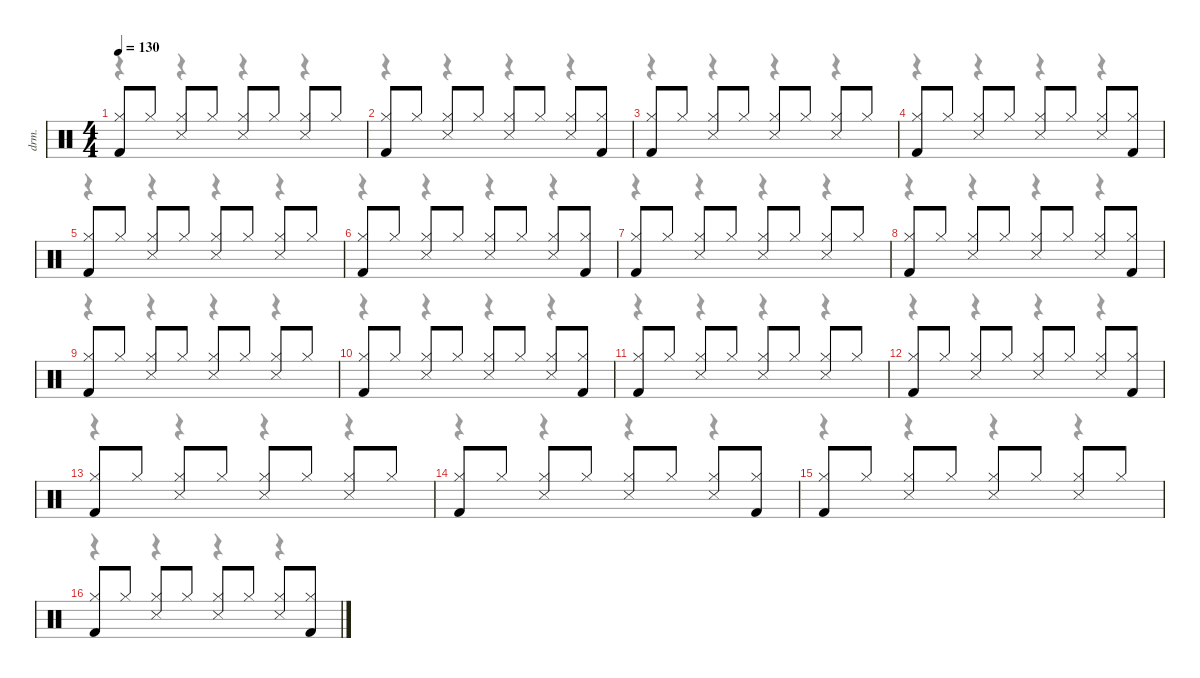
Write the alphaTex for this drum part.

\defaultSystemsLayout 4
\hideDynamics
\bracketExtendMode nobrackets
\track ("Drums" "drm.") {instrument percussion}
\staff {score}
\articulation defaults
\voice
\ts (4 4)
\tempo 130
\clef neutral
\ks c
("Kick (hit) 2" "Hi-Hat (closed)").8{dy fff beam Up} "Hi-Hat (closed)".8{beam Up} ("Snare (side stick) 3" "Hi-Hat (closed)").8{beam Up} "Hi-Hat (closed)".8{beam Up} ("Snare (side stick) 3" "Hi-Hat (closed)").8{beam Up} "Hi-Hat (closed)".8{beam Up} ("Snare (side stick) 3" "Hi-Hat (closed)").8{beam Up} "Hi-Hat (closed)".8{beam Up} |
("Kick (hit) 2" "Hi-Hat (closed)").8{beam Up} "Hi-Hat (closed)".8{beam Up} ("Snare (side stick) 3" "Hi-Hat (closed)").8{beam Up} "Hi-Hat (closed)".8{beam Up} ("Snare (side stick) 3" "Hi-Hat (closed)").8{beam Up} "Hi-Hat (closed)".8{beam Up} ("Snare (side stick) 3" "Hi-Hat (closed)").8{beam Up} ("Kick (hit) 2" "Hi-Hat (closed)").8{beam Up} |
("Kick (hit) 2" "Hi-Hat (closed)").8{beam Up} "Hi-Hat (closed)".8{beam Up} ("Snare (side stick) 3" "Hi-Hat (closed)").8{beam Up} "Hi-Hat (closed)".8{beam Up} ("Snare (side stick) 3" "Hi-Hat (closed)").8{beam Up} "Hi-Hat (closed)".8{beam Up} ("Snare (side stick) 3" "Hi-Hat (closed)").8{beam Up} "Hi-Hat (closed)".8{beam Up} |
("Kick (hit) 2" "Hi-Hat (closed)").8{beam Up} "Hi-Hat (closed)".8{beam Up} ("Snare (side stick) 3" "Hi-Hat (closed)").8{beam Up} "Hi-Hat (closed)".8{beam Up} ("Snare (side stick) 3" "Hi-Hat (closed)").8{beam Up} "Hi-Hat (closed)".8{beam Up} ("Snare (side stick) 3" "Hi-Hat (closed)").8{beam Up} ("Kick (hit) 2" "Hi-Hat (closed)").8{beam Up} |
("Kick (hit) 2" "Hi-Hat (closed)").8{beam Up} "Hi-Hat (closed)".8{beam Up} ("Snare (side stick) 3" "Hi-Hat (closed)").8{beam Up} "Hi-Hat (closed)".8{beam Up} ("Snare (side stick) 3" "Hi-Hat (closed)").8{beam Up} "Hi-Hat (closed)".8{beam Up} ("Snare (side stick) 3" "Hi-Hat (closed)").8{beam Up} "Hi-Hat (closed)".8{beam Up} |
("Kick (hit) 2" "Hi-Hat (closed)").8{beam Up} "Hi-Hat (closed)".8{beam Up} ("Snare (side stick) 3" "Hi-Hat (closed)").8{beam Up} "Hi-Hat (closed)".8{beam Up} ("Snare (side stick) 3" "Hi-Hat (closed)").8{beam Up} "Hi-Hat (closed)".8{beam Up} ("Snare (side stick) 3" "Hi-Hat (closed)").8{beam Up} ("Kick (hit) 2" "Hi-Hat (closed)").8{beam Up} |
("Kick (hit) 2" "Hi-Hat (closed)").8{beam Up} "Hi-Hat (closed)".8{beam Up} ("Snare (side stick) 3" "Hi-Hat (closed)").8{beam Up} "Hi-Hat (closed)".8{beam Up} ("Snare (side stick) 3" "Hi-Hat (closed)").8{beam Up} "Hi-Hat (closed)".8{beam Up} ("Snare (side stick) 3" "Hi-Hat (closed)").8{beam Up} "Hi-Hat (closed)".8{beam Up} |
("Kick (hit) 2" "Hi-Hat (closed)").8{beam Up} "Hi-Hat (closed)".8{beam Up} ("Snare (side stick) 3" "Hi-Hat (closed)").8{beam Up} "Hi-Hat (closed)".8{beam Up} ("Snare (side stick) 3" "Hi-Hat (closed)").8{beam Up} "Hi-Hat (closed)".8{beam Up} ("Snare (side stick) 3" "Hi-Hat (closed)").8{beam Up} ("Kick (hit) 2" "Hi-Hat (closed)").8{beam Up} |
("Kick (hit) 2" "Hi-Hat (closed)").8{beam Up} "Hi-Hat (closed)".8{beam Up} ("Snare (side stick) 3" "Hi-Hat (closed)").8{beam Up} "Hi-Hat (closed)".8{beam Up} ("Snare (side stick) 3" "Hi-Hat (closed)").8{beam Up} "Hi-Hat (closed)".8{beam Up} ("Snare (side stick) 3" "Hi-Hat (closed)").8{beam Up} "Hi-Hat (closed)".8{beam Up} |
("Kick (hit) 2" "Hi-Hat (closed)").8{beam Up} "Hi-Hat (closed)".8{beam Up} ("Snare (side stick) 3" "Hi-Hat (closed)").8{beam Up} "Hi-Hat (closed)".8{beam Up} ("Snare (side stick) 3" "Hi-Hat (closed)").8{beam Up} "Hi-Hat (closed)".8{beam Up} ("Snare (side stick) 3" "Hi-Hat (closed)").8{beam Up} ("Kick (hit) 2" "Hi-Hat (closed)").8{beam Up} |
("Kick (hit) 2" "Hi-Hat (closed)").8{beam Up} "Hi-Hat (closed)".8{beam Up} ("Snare (side stick) 3" "Hi-Hat (closed)").8{beam Up} "Hi-Hat (closed)".8{beam Up} ("Snare (side stick) 3" "Hi-Hat (closed)").8{beam Up} "Hi-Hat (closed)".8{beam Up} ("Snare (side stick) 3" "Hi-Hat (closed)").8{beam Up} "Hi-Hat (closed)".8{beam Up} |
("Kick (hit) 2" "Hi-Hat (closed)").8{beam Up} "Hi-Hat (closed)".8{beam Up} ("Snare (side stick) 3" "Hi-Hat (closed)").8{beam Up} "Hi-Hat (closed)".8{beam Up} ("Snare (side stick) 3" "Hi-Hat (closed)").8{beam Up} "Hi-Hat (closed)".8{beam Up} ("Snare (side stick) 3" "Hi-Hat (closed)").8{beam Up} ("Kick (hit) 2" "Hi-Hat (closed)").8{beam Up} |
("Kick (hit) 2" "Hi-Hat (closed)").8{beam Up} "Hi-Hat (closed)".8{beam Up} ("Snare (side stick) 3" "Hi-Hat (closed)").8{beam Up} "Hi-Hat (closed)".8{beam Up} ("Snare (side stick) 3" "Hi-Hat (closed)").8{beam Up} "Hi-Hat (closed)".8{beam Up} ("Snare (side stick) 3" "Hi-Hat (closed)").8{beam Up} "Hi-Hat (closed)".8{beam Up} |
("Kick (hit) 2" "Hi-Hat (closed)").8{beam Up} "Hi-Hat (closed)".8{beam Up} ("Snare (side stick) 3" "Hi-Hat (closed)").8{beam Up} "Hi-Hat (closed)".8{beam Up} ("Snare (side stick) 3" "Hi-Hat (closed)").8{beam Up} "Hi-Hat (closed)".8{beam Up} ("Snare (side stick) 3" "Hi-Hat (closed)").8{beam Up} ("Kick (hit) 2" "Hi-Hat (closed)").8{beam Up} |
("Kick (hit) 2" "Hi-Hat (closed)").8{beam Up} "Hi-Hat (closed)".8{beam Up} ("Snare (side stick) 3" "Hi-Hat (closed)").8{beam Up} "Hi-Hat (closed)".8{beam Up} ("Snare (side stick) 3" "Hi-Hat (closed)").8{beam Up} "Hi-Hat (closed)".8{beam Up} ("Snare (side stick) 3" "Hi-Hat (closed)").8{beam Up} "Hi-Hat (closed)".8{beam Up} |
("Kick (hit) 2" "Hi-Hat (closed)").8{beam Up} "Hi-Hat (closed)".8{beam Up} ("Snare (side stick) 3" "Hi-Hat (closed)").8{beam Up} "Hi-Hat (closed)".8{beam Up} ("Snare (side stick) 3" "Hi-Hat (closed)").8{beam Up} "Hi-Hat (closed)".8{beam Up} ("Snare (side stick) 3" "Hi-Hat (closed)").8{beam Up} ("Kick (hit) 2" "Hi-Hat (closed)").8{beam Up}
\voice
\clef neutral
\ottava regular
\simile none
\ks c
r.4{dy mf beam Down} r.4{beam Down} r.4{beam Down} r.4{beam Down} |
r.4{beam Down} r.4{beam Down} r.4{beam Down} r.4{beam Down} |
r.4{beam Down} r.4{beam Down} r.4{beam Down} r.4{beam Down} |
r.4{beam Down} r.4{beam Down} r.4{beam Down} r.4{beam Down} |
r.4{beam Down} r.4{beam Down} r.4{beam Down} r.4{beam Down} |
r.4{beam Down} r.4{beam Down} r.4{beam Down} r.4{beam Down} |
r.4{beam Down} r.4{beam Down} r.4{beam Down} r.4{beam Down} |
r.4{beam Down} r.4{beam Down} r.4{beam Down} r.4{beam Down} |
r.4{beam Down} r.4{beam Down} r.4{beam Down} r.4{beam Down} |
r.4{beam Down} r.4{beam Down} r.4{beam Down} r.4{beam Down} |
r.4{beam Down} r.4{beam Down} r.4{beam Down} r.4{beam Down} |
r.4{beam Down} r.4{beam Down} r.4{beam Down} r.4{beam Down} |
r.4{beam Down} r.4{beam Down} r.4{beam Down} r.4{beam Down} |
r.4{beam Down} r.4{beam Down} r.4{beam Down} r.4{beam Down} |
r.4{beam Down} r.4{beam Down} r.4{beam Down} r.4{beam Down} |
r.4{beam Down} r.4{beam Down} r.4{beam Down} r.4{beam Down}
